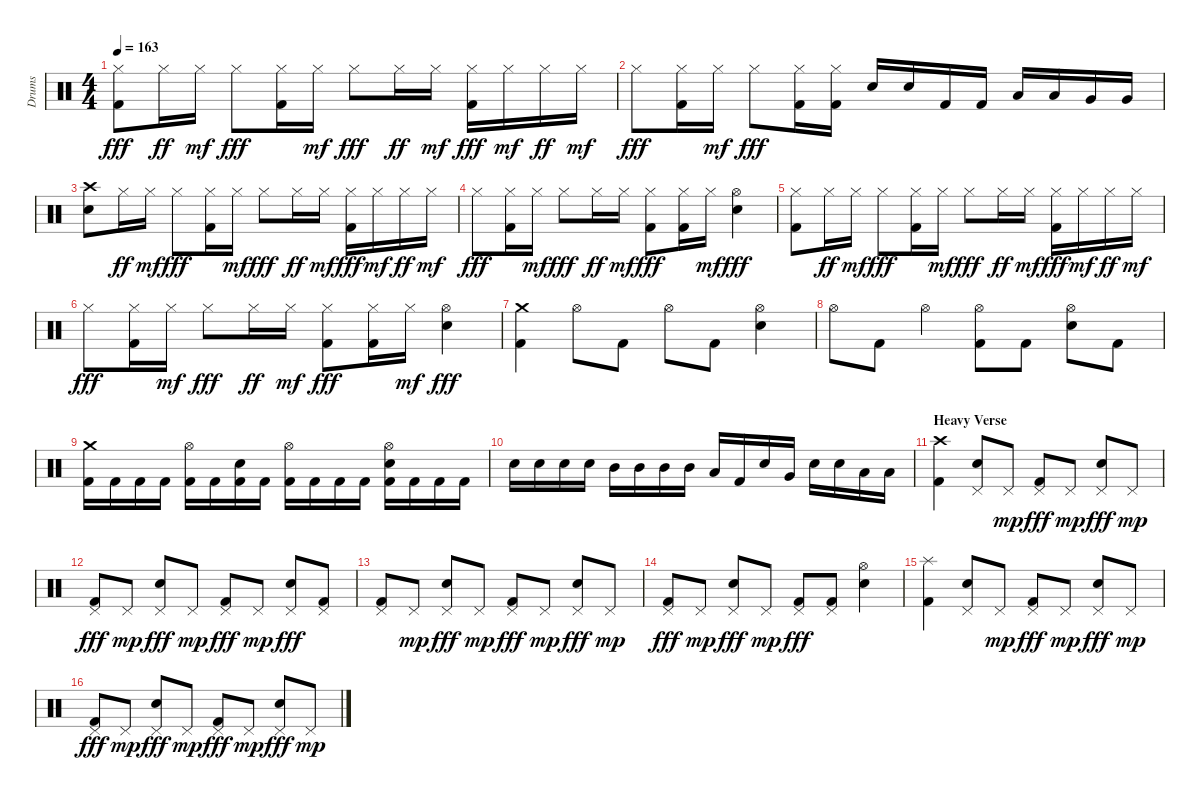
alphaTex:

\track ("Drums" "Drums") {instrument percussion}
\staff {score}
\articulation defaults
\ts (4 4)
\tempo 163
\clef neutral
\ks aminor
("Kick (hit) 2" "Hi-Hat (closed)").8{dy fff} "Hi-Hat (closed)".16{dy ff} "Hi-Hat (closed)".16{dy mf} "Hi-Hat (closed)".8{dy fff} ("Kick (hit) 2" "Hi-Hat (closed)").16 "Hi-Hat (closed)".16{dy mf} "Hi-Hat (closed)".8{dy fff} "Hi-Hat (closed)".16{dy ff} "Hi-Hat (closed)".16{dy mf} ("Kick (hit) 2" "Hi-Hat (closed)").16{dy fff} "Hi-Hat (closed)".16{dy mf} "Hi-Hat (closed)".16{dy ff} "Hi-Hat (closed)".16{dy mf} |
"Hi-Hat (closed)".8{dy fff} ("Kick (hit) 2" "Hi-Hat (closed)").16 "Hi-Hat (closed)".16{dy mf} "Hi-Hat (closed)".8{dy fff} ("Kick (hit) 2" "Hi-Hat (closed)").16 ("Kick (hit) 2" "Hi-Hat (closed)").16 "Snare (hit) 2".16 "Snare (hit) 2".16 "Kick (hit) 2".16 "Kick (hit) 2".16 "Low Tom (hit)".16 "Low Tom (hit)".16 "Very Low Tom (hit)".16 "Very Low Tom (hit)".16 |
("Snare (hit) 2" "Crash high (hit)").8 "Hi-Hat (closed)".16{dy ff} "Hi-Hat (closed)".16{dy mf} "Hi-Hat (closed)".8{dy fff} ("Kick (hit) 2" "Hi-Hat (closed)").16 "Hi-Hat (closed)".16{dy mf} "Hi-Hat (closed)".8{dy fff} "Hi-Hat (closed)".16{dy ff} "Hi-Hat (closed)".16{dy mf} ("Kick (hit) 2" "Hi-Hat (closed)").16{dy fff} "Hi-Hat (closed)".16{dy mf} "Hi-Hat (closed)".16{dy ff} "Hi-Hat (closed)".16{dy mf} |
"Hi-Hat (closed)".8{dy fff} ("Kick (hit) 2" "Hi-Hat (closed)").16 "Hi-Hat (closed)".16{dy mf} "Hi-Hat (closed)".8{dy fff} "Hi-Hat (closed)".16{dy ff} "Hi-Hat (closed)".16{dy mf} ("Kick (hit) 2" "Hi-Hat (closed)").8{dy fff} ("Kick (hit) 2" "Hi-Hat (closed)").16 "Hi-Hat (closed)".16{dy mf} ("Snare (hit) 2" "Hi-Hat (open)").4{dy fff} |
("Kick (hit) 2" "Hi-Hat (closed)").8 "Hi-Hat (closed)".16{dy ff} "Hi-Hat (closed)".16{dy mf} "Hi-Hat (closed)".8{dy fff} ("Kick (hit) 2" "Hi-Hat (closed)").16 "Hi-Hat (closed)".16{dy mf} "Hi-Hat (closed)".8{dy fff} "Hi-Hat (closed)".16{dy ff} "Hi-Hat (closed)".16{dy mf} ("Kick (hit) 2" "Hi-Hat (closed)").16{dy fff} "Hi-Hat (closed)".16{dy mf} "Hi-Hat (closed)".16{dy ff} "Hi-Hat (closed)".16{dy mf} |
"Hi-Hat (closed)".8{dy fff} ("Kick (hit) 2" "Hi-Hat (closed)").16 "Hi-Hat (closed)".16{dy mf} "Hi-Hat (closed)".8{dy fff} "Hi-Hat (closed)".16{dy ff} "Hi-Hat (closed)".16{dy mf} ("Kick (hit) 2" "Hi-Hat (closed)").8{dy fff} ("Kick (hit) 2" "Hi-Hat (closed)").16 "Hi-Hat (closed)".16{dy mf} ("Snare (hit) 2" "Hi-Hat (open)").4{dy fff} |
("Kick (hit) 2" "Crash medium (hit)").4 "Hi-Hat (open)".8 "Kick (hit) 2".8 "Hi-Hat (open)".8 "Kick (hit) 2".8 ("Snare (hit) 2" "Hi-Hat (open)").4 |
"Hi-Hat (open)".8 "Kick (hit) 2".8 "Hi-Hat (open)".4 ("Kick (hit) 2" "Hi-Hat (open)").8 "Kick (hit) 2".8 ("Snare (hit) 2" "Hi-Hat (open)").8 "Kick (hit) 2".8 |
("Kick (hit) 2" "Crash medium (hit)").16 "Kick (hit) 2".16 "Kick (hit) 2".16 "Kick (hit) 2".16 ("Kick (hit) 2" "Hi-Hat (open)").16 "Kick (hit) 2".16 ("Kick (hit) 2" "Snare (hit) 2").16 "Kick (hit) 2".16 ("Kick (hit) 2" "Hi-Hat (open)").16 "Kick (hit) 2".16 "Kick (hit) 2".16 "Kick (hit) 2".16 ("Kick (hit) 2" "Snare (hit) 2" "Hi-Hat (open)").16 "Kick (hit) 2".16 "Kick (hit) 2".16 "Kick (hit) 2".16 |
"Snare (hit) 2".16 "Snare (hit) 2".16 "Snare (hit) 2".16 "Snare (hit) 2".16 "Mid Tom (hit)".16 "Mid Tom (hit)".16 "Mid Tom (hit)".16 "Mid Tom (hit)".16 "Low Tom (hit)".16 "Kick (hit) 2".16 "Snare (hit) 2".16 "Very Low Tom (hit)".16 "Snare (hit) 2".16 "Snare (hit) 2".16 "Low Floor Tom (hit)".16 "Low Floor Tom (hit)".16 |
\section ("" "Heavy Verse")
("Kick (hit) 2" "Crash high (hit)").4 ("Snare (hit) 2" "Pedal Hi-Hat (hit)").8 "Pedal Hi-Hat (hit)".8{dy mp} ("Kick (hit) 2" "Pedal Hi-Hat (hit)").8{dy fff} "Pedal Hi-Hat (hit)".8{dy mp} ("Snare (hit) 2" "Pedal Hi-Hat (hit)").8{dy fff} "Pedal Hi-Hat (hit)".8{dy mp} |
("Kick (hit) 2" "Pedal Hi-Hat (hit)").8{dy fff} "Pedal Hi-Hat (hit)".8{dy mp} ("Snare (hit) 2" "Pedal Hi-Hat (hit)").8{dy fff} "Pedal Hi-Hat (hit)".8{dy mp} ("Kick (hit) 2" "Pedal Hi-Hat (hit)").8{dy fff} "Pedal Hi-Hat (hit)".8{dy mp} ("Snare (hit) 2" "Pedal Hi-Hat (hit)").8{dy fff} ("Kick (hit) 2" "Pedal Hi-Hat (hit)").8 |
("Kick (hit) 2" "Pedal Hi-Hat (hit)").8 "Pedal Hi-Hat (hit)".8{dy mp} ("Snare (hit) 2" "Pedal Hi-Hat (hit)").8{dy fff} "Pedal Hi-Hat (hit)".8{dy mp} ("Kick (hit) 2" "Pedal Hi-Hat (hit)").8{dy fff} "Pedal Hi-Hat (hit)".8{dy mp} ("Snare (hit) 2" "Pedal Hi-Hat (hit)").8{dy fff} "Pedal Hi-Hat (hit)".8{dy mp} |
("Kick (hit) 2" "Pedal Hi-Hat (hit)").8{dy fff} "Pedal Hi-Hat (hit)".8{dy mp} ("Snare (hit) 2" "Pedal Hi-Hat (hit)").8{dy fff} "Pedal Hi-Hat (hit)".8{dy mp} ("Kick (hit) 2" "Pedal Hi-Hat (hit)").8{dy fff} ("Kick (hit) 2" "Pedal Hi-Hat (hit)").8 ("Snare (hit) 2" "Hi-Hat (open)").4 |
("Kick (hit) 2" "Splash (hit)").4 ("Snare (hit) 2" "Pedal Hi-Hat (hit)").8 "Pedal Hi-Hat (hit)".8{dy mp} ("Kick (hit) 2" "Pedal Hi-Hat (hit)").8{dy fff} "Pedal Hi-Hat (hit)".8{dy mp} ("Snare (hit) 2" "Pedal Hi-Hat (hit)").8{dy fff} "Pedal Hi-Hat (hit)".8{dy mp} |
("Kick (hit) 2" "Pedal Hi-Hat (hit)").8{dy fff} "Pedal Hi-Hat (hit)".8{dy mp} ("Snare (hit) 2" "Pedal Hi-Hat (hit)").8{dy fff} "Pedal Hi-Hat (hit)".8{dy mp} ("Kick (hit) 2" "Pedal Hi-Hat (hit)").8{dy fff} "Pedal Hi-Hat (hit)".8{dy mp} ("Snare (hit) 2" "Pedal Hi-Hat (hit)").8{dy fff} "Pedal Hi-Hat (hit)".8{dy mp}
